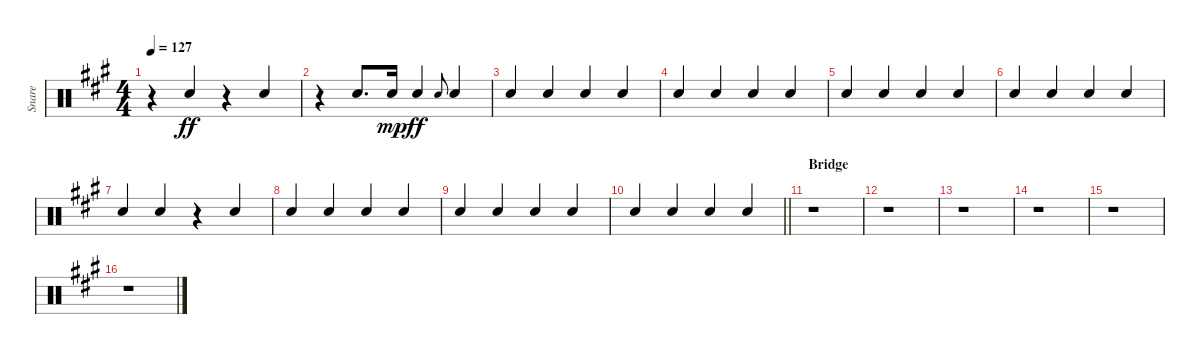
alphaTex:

\track ("Snare" "Snare") {instrument percussion}
\staff {score}
\articulation defaults
\ts (4 4)
\tempo 127
\clef neutral
\ks a
r.4{dy ff} "Electric Snare (hit)".4{beam Up} r.4 "Electric Snare (hit)".4{beam Up} |
r.4 "Electric Snare (hit)".8{d beam Up} "Electric Snare (hit)".16{dy mp beam Up} "Electric Snare (hit)".4{dy ff beam Up} "Electric Snare (hit)".8{gr onbeat} "Electric Snare (hit)".4{beam Up} |
"Electric Snare (hit)".4{beam Up} "Electric Snare (hit)".4{beam Up} "Electric Snare (hit)".4{beam Up} "Electric Snare (hit)".4{beam Up} |
"Electric Snare (hit)".4{beam Up} "Electric Snare (hit)".4{beam Up} "Electric Snare (hit)".4{beam Up} "Electric Snare (hit)".4{beam Up} |
"Electric Snare (hit)".4{beam Up} "Electric Snare (hit)".4{beam Up} "Electric Snare (hit)".4{beam Up} "Electric Snare (hit)".4{beam Up} |
"Electric Snare (hit)".4{beam Up} "Electric Snare (hit)".4{beam Up} "Electric Snare (hit)".4{beam Up} "Electric Snare (hit)".4{beam Up} |
"Electric Snare (hit)".4{beam Up} "Electric Snare (hit)".4{beam Up} r.4 "Electric Snare (hit)".4{beam Up} |
"Electric Snare (hit)".4{beam Up} "Electric Snare (hit)".4{beam Up} "Electric Snare (hit)".4{beam Up} "Electric Snare (hit)".4{beam Up} |
"Electric Snare (hit)".4{beam Up} "Electric Snare (hit)".4{beam Up} "Electric Snare (hit)".4{beam Up} "Electric Snare (hit)".4{beam Up} |
\barLineRight lightlight "Electric Snare (hit)".4{beam Up} "Electric Snare (hit)".4{beam Up} "Electric Snare (hit)".4{beam Up} "Electric Snare (hit)".4{beam Up}
|
\section ("" "Bridge")
r.1 |
r.1 |
r.1 |
r.1 |
r.1 |
r.1
